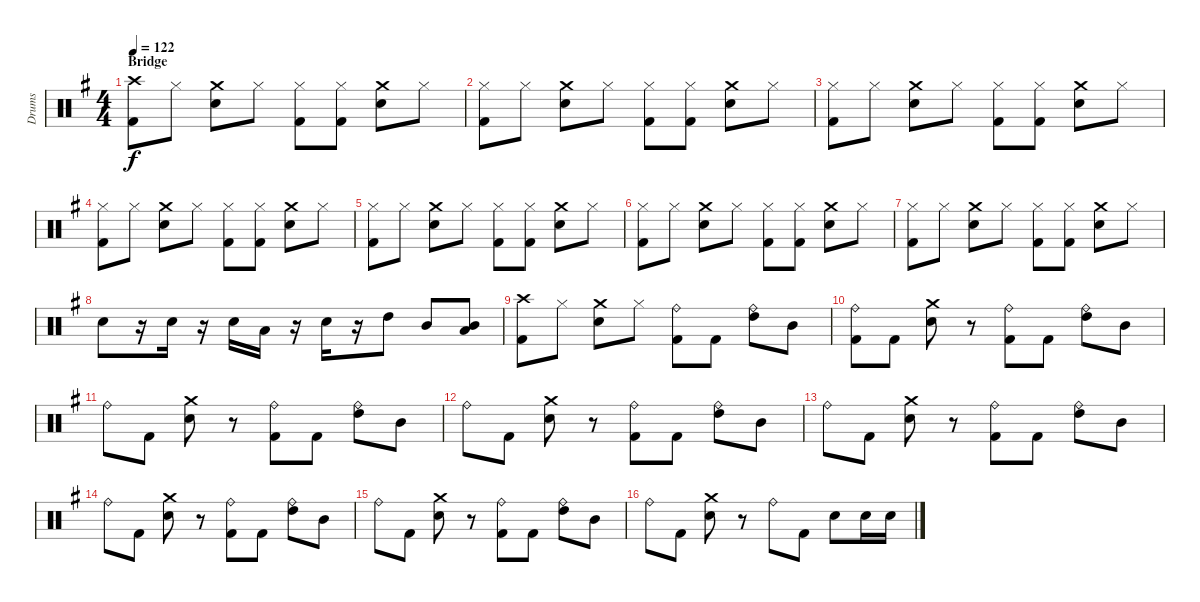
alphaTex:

\track ("Drums" "Drums") {instrument percussion}
\staff {score}
\articulation defaults
\ts (4 4)
\section ("" "Bridge")
\tempo 122
\clef neutral
\ks g
("Crash high (hit)" "Kick (hit) 2").8{dy f} "Hi-Hat (closed)".8 ("Crash medium (hit)" "Electric Snare (hit)").8 "Hi-Hat (closed)".8 ("Hi-Hat (closed)" "Kick (hit) 2").8 ("Hi-Hat (closed)" "Kick (hit) 2").8 ("Crash medium (hit)" "Electric Snare (hit)").8 "Hi-Hat (closed)".8 |
("Hi-Hat (closed)" "Kick (hit) 2").8 "Hi-Hat (closed)".8 ("Crash medium (hit)" "Electric Snare (hit)").8 "Hi-Hat (closed)".8 ("Hi-Hat (closed)" "Kick (hit) 2").8 ("Hi-Hat (closed)" "Kick (hit) 2").8 ("Crash medium (hit)" "Electric Snare (hit)").8 "Hi-Hat (closed)".8 |
("Hi-Hat (closed)" "Kick (hit) 2").8 "Hi-Hat (closed)".8 ("Crash medium (hit)" "Electric Snare (hit)").8 "Hi-Hat (closed)".8 ("Hi-Hat (closed)" "Kick (hit) 2").8 ("Hi-Hat (closed)" "Kick (hit) 2").8 ("Crash medium (hit)" "Electric Snare (hit)").8 "Hi-Hat (closed)".8 |
("Hi-Hat (closed)" "Kick (hit) 2").8 "Hi-Hat (closed)".8 ("Crash medium (hit)" "Electric Snare (hit)").8 "Hi-Hat (closed)".8 ("Hi-Hat (closed)" "Kick (hit) 2").8 ("Hi-Hat (closed)" "Kick (hit) 2").8 ("Crash medium (hit)" "Electric Snare (hit)").8 "Hi-Hat (closed)".8 |
("Hi-Hat (closed)" "Kick (hit) 2").8 "Hi-Hat (closed)".8 ("Crash medium (hit)" "Electric Snare (hit)").8 "Hi-Hat (closed)".8 ("Hi-Hat (closed)" "Kick (hit) 2").8 ("Hi-Hat (closed)" "Kick (hit) 2").8 ("Crash medium (hit)" "Electric Snare (hit)").8 "Hi-Hat (closed)".8 |
("Hi-Hat (closed)" "Kick (hit) 2").8 "Hi-Hat (closed)".8 ("Crash medium (hit)" "Electric Snare (hit)").8 "Hi-Hat (closed)".8 ("Hi-Hat (closed)" "Kick (hit) 2").8 ("Hi-Hat (closed)" "Kick (hit) 2").8 ("Crash medium (hit)" "Electric Snare (hit)").8 "Hi-Hat (closed)".8 |
("Hi-Hat (closed)" "Kick (hit) 2").8 "Hi-Hat (closed)".8 ("Crash medium (hit)" "Electric Snare (hit)").8 "Hi-Hat (closed)".8 ("Hi-Hat (closed)" "Kick (hit) 2").8 ("Hi-Hat (closed)" "Kick (hit) 2").8 ("Crash medium (hit)" "Electric Snare (hit)").8 "Hi-Hat (closed)".8 |
"Electric Snare (hit)".8 r.16 "Electric Snare (hit)".16 r.16 "Electric Snare (hit)".16 "Low Tom (hit)".16 r.16 "Electric Snare (hit)".16 r.16 "High Tom (hit)".8 "Mid Tom (hit)".8 ("Low Tom (hit)" "Mid Tom (hit)").8 |
("Crash high (hit)" "Kick (hit) 2").8 "Hi-Hat (closed)".8 ("Crash medium (hit)" "Electric Snare (hit)").8 "Hi-Hat (closed)".8 ("Ride (bell)" "Kick (hit) 2").8 "Kick (hit) 2".8 ("Ride (bell)" "High Tom (hit)").8 "Mid Tom (hit)".8 |
("Ride (bell)" "Kick (hit) 2").8 "Kick (hit) 2".8 ("Crash medium (hit)" "Electric Snare (hit)").8 r.8 ("Ride (bell)" "Kick (hit) 2").8 "Kick (hit) 2".8 ("Ride (bell)" "High Tom (hit)").8 "Mid Tom (hit)".8 |
"Ride (bell)".8 "Kick (hit) 2".8 ("Crash medium (hit)" "Electric Snare (hit)").8 r.8 ("Ride (bell)" "Kick (hit) 2").8 "Kick (hit) 2".8 ("Ride (bell)" "High Tom (hit)").8 "Mid Tom (hit)".8 |
"Ride (bell)".8 "Kick (hit) 2".8 ("Crash medium (hit)" "Electric Snare (hit)").8 r.8 ("Ride (bell)" "Kick (hit) 2").8 "Kick (hit) 2".8 ("Ride (bell)" "High Tom (hit)").8 "Mid Tom (hit)".8 |
"Ride (bell)".8 "Kick (hit) 2".8 ("Crash medium (hit)" "Electric Snare (hit)").8 r.8 ("Ride (bell)" "Kick (hit) 2").8 "Kick (hit) 2".8 ("Ride (bell)" "High Tom (hit)").8 "Mid Tom (hit)".8 |
"Ride (bell)".8 "Kick (hit) 2".8 ("Crash medium (hit)" "Electric Snare (hit)").8 r.8 ("Ride (bell)" "Kick (hit) 2").8 "Kick (hit) 2".8 ("Ride (bell)" "High Tom (hit)").8 "Mid Tom (hit)".8 |
"Ride (bell)".8 "Kick (hit) 2".8 ("Crash medium (hit)" "Electric Snare (hit)").8 r.8 ("Ride (bell)" "Kick (hit) 2").8 "Kick (hit) 2".8 ("Ride (bell)" "High Tom (hit)").8 "Mid Tom (hit)".8 |
"Ride (bell)".8 "Kick (hit) 2".8 ("Crash medium (hit)" "Electric Snare (hit)").8 r.8 "Ride (bell)".8 "Kick (hit) 2".8 "Electric Snare (hit)".8 "Electric Snare (hit)".16 "Electric Snare (hit)".16
